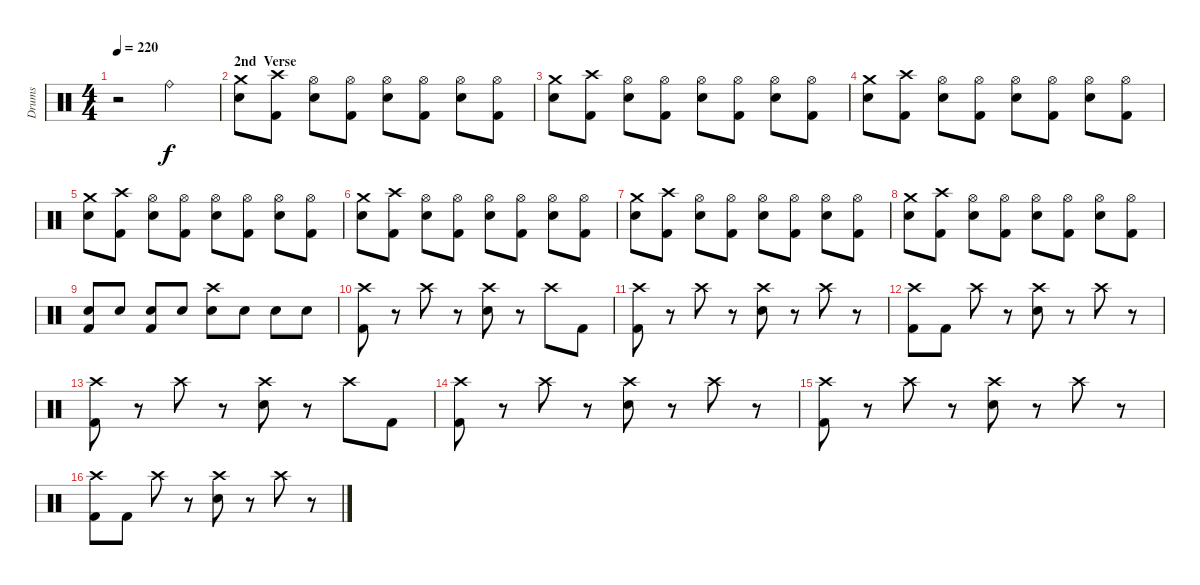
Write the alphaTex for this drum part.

\track ("Drums" "Drums") {instrument percussion}
\staff {score}
\articulation defaults
\ts (4 4)
\tempo 220
\clef neutral
\ks c
r.2{dy f} "Ride (bell)".2 |
\section ("" "2nd  Verse")
("Crash medium (hit)" "Electric Snare (hit)").8 ("Crash high (hit)" "Kick (hit) 2").8 ("Hi-Hat (open)" "Electric Snare (hit)").8 ("Hi-Hat (open)" "Kick (hit) 2").8 ("Hi-Hat (open)" "Electric Snare (hit)").8 ("Hi-Hat (open)" "Kick (hit) 2").8 ("Hi-Hat (open)" "Electric Snare (hit)").8 ("Hi-Hat (open)" "Kick (hit) 2").8 |
("Crash medium (hit)" "Electric Snare (hit)").8 ("Crash high (hit)" "Kick (hit) 2").8 ("Hi-Hat (open)" "Electric Snare (hit)").8 ("Hi-Hat (open)" "Kick (hit) 2").8 ("Hi-Hat (open)" "Electric Snare (hit)").8 ("Hi-Hat (open)" "Kick (hit) 2").8 ("Hi-Hat (open)" "Electric Snare (hit)").8 ("Hi-Hat (open)" "Kick (hit) 2").8 |
("Crash medium (hit)" "Electric Snare (hit)").8 ("Crash high (hit)" "Kick (hit) 2").8 ("Hi-Hat (open)" "Electric Snare (hit)").8 ("Hi-Hat (open)" "Kick (hit) 2").8 ("Hi-Hat (open)" "Electric Snare (hit)").8 ("Hi-Hat (open)" "Kick (hit) 2").8 ("Hi-Hat (open)" "Electric Snare (hit)").8 ("Hi-Hat (open)" "Kick (hit) 2").8 |
("Crash medium (hit)" "Electric Snare (hit)").8 ("Crash high (hit)" "Kick (hit) 2").8 ("Hi-Hat (open)" "Electric Snare (hit)").8 ("Hi-Hat (open)" "Kick (hit) 2").8 ("Hi-Hat (open)" "Electric Snare (hit)").8 ("Hi-Hat (open)" "Kick (hit) 2").8 ("Hi-Hat (open)" "Electric Snare (hit)").8 ("Hi-Hat (open)" "Kick (hit) 2").8 |
("Crash medium (hit)" "Electric Snare (hit)").8 ("Crash high (hit)" "Kick (hit) 2").8 ("Hi-Hat (open)" "Electric Snare (hit)").8 ("Hi-Hat (open)" "Kick (hit) 2").8 ("Hi-Hat (open)" "Electric Snare (hit)").8 ("Hi-Hat (open)" "Kick (hit) 2").8 ("Hi-Hat (open)" "Electric Snare (hit)").8 ("Hi-Hat (open)" "Kick (hit) 2").8 |
("Crash medium (hit)" "Electric Snare (hit)").8 ("Crash high (hit)" "Kick (hit) 2").8 ("Hi-Hat (open)" "Electric Snare (hit)").8 ("Hi-Hat (open)" "Kick (hit) 2").8 ("Hi-Hat (open)" "Electric Snare (hit)").8 ("Hi-Hat (open)" "Kick (hit) 2").8 ("Hi-Hat (open)" "Electric Snare (hit)").8 ("Hi-Hat (open)" "Kick (hit) 2").8 |
("Crash medium (hit)" "Electric Snare (hit)").8 ("Crash high (hit)" "Kick (hit) 2").8 ("Hi-Hat (open)" "Electric Snare (hit)").8 ("Hi-Hat (open)" "Kick (hit) 2").8 ("Hi-Hat (open)" "Electric Snare (hit)").8 ("Hi-Hat (open)" "Kick (hit) 2").8 ("Hi-Hat (open)" "Electric Snare (hit)").8 ("Hi-Hat (open)" "Kick (hit) 2").8 |
("Electric Snare (hit)" "Kick (hit) 2").8 "Electric Snare (hit)".8 ("Electric Snare (hit)" "Kick (hit) 2").8 "Electric Snare (hit)".8 ("Crash high (hit)" "Electric Snare (hit)").8 "Electric Snare (hit)".8 "Electric Snare (hit)".8 "Electric Snare (hit)".8 |
("Crash high (hit)" "Kick (hit) 2").8 r.8 "Crash high (hit)".8 r.8 ("Crash high (hit)" "Electric Snare (hit)").8 r.8 "Crash high (hit)".8 "Kick (hit) 2".8 |
("Crash high (hit)" "Kick (hit) 2").8 r.8 "Crash high (hit)".8 r.8 ("Crash high (hit)" "Electric Snare (hit)").8 r.8 "Crash high (hit)".8 r.8 |
("Crash high (hit)" "Kick (hit) 2").8 "Kick (hit) 2".8 "Crash high (hit)".8 r.8 ("Crash high (hit)" "Electric Snare (hit)").8 r.8 "Crash high (hit)".8 r.8 |
("Crash high (hit)" "Kick (hit) 2").8 r.8 "Crash high (hit)".8 r.8 ("Crash high (hit)" "Electric Snare (hit)").8 r.8 "Crash high (hit)".8 "Kick (hit) 2".8 |
("Crash high (hit)" "Kick (hit) 2").8 r.8 "Crash high (hit)".8 r.8 ("Crash high (hit)" "Electric Snare (hit)").8 r.8 "Crash high (hit)".8 r.8 |
("Crash high (hit)" "Kick (hit) 2").8 r.8 "Crash high (hit)".8 r.8 ("Crash high (hit)" "Electric Snare (hit)").8 r.8 "Crash high (hit)".8 r.8 |
("Crash high (hit)" "Kick (hit) 2").8 "Kick (hit) 2".8 "Crash high (hit)".8 r.8 ("Crash high (hit)" "Electric Snare (hit)").8 r.8 "Crash high (hit)".8 r.8
